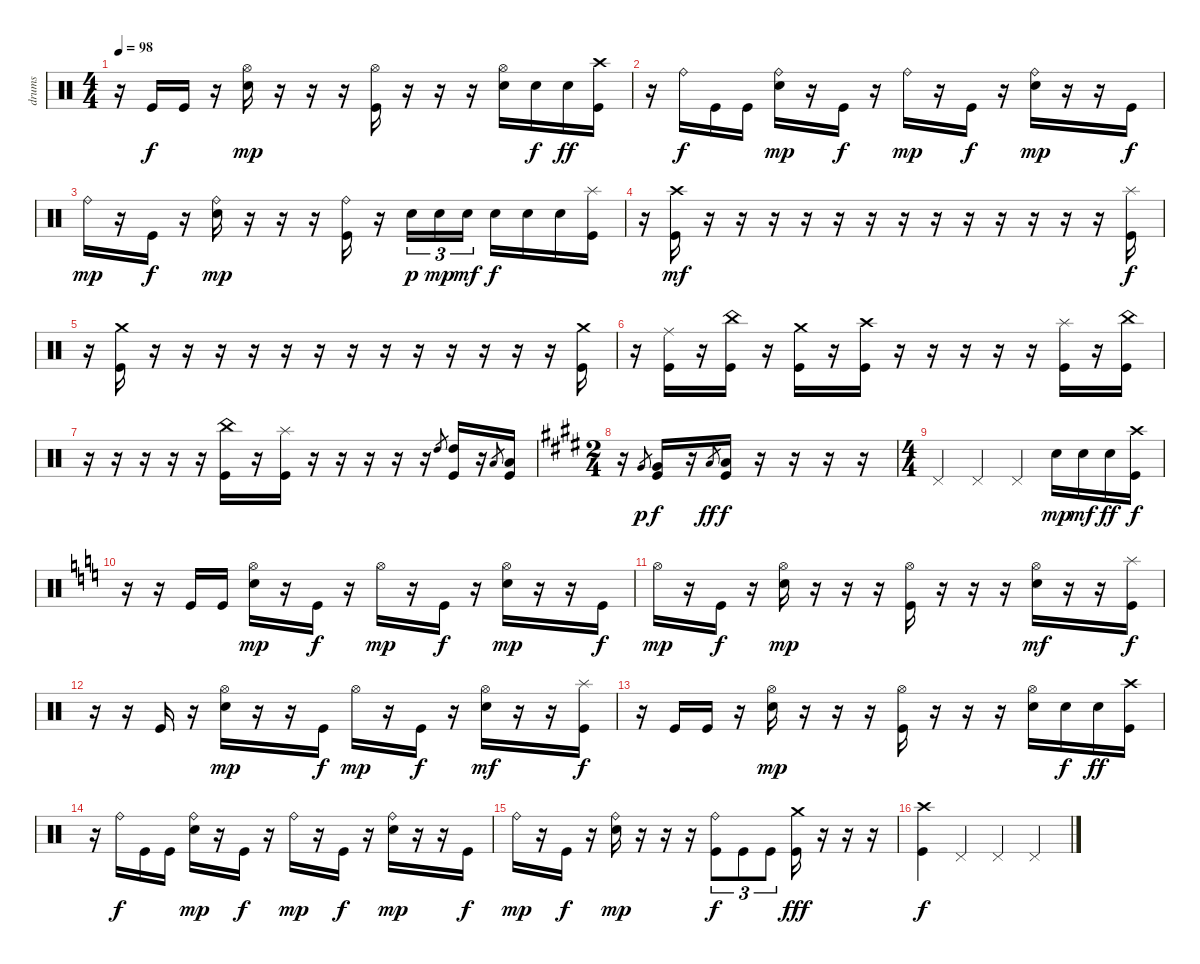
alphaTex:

\track ("drums" "drums") {instrument percussion}
\staff {score}
\articulation defaults
\ts (4 4)
\tempo 98
\clef neutral
\ks c
r.16{dy f} "Kick (hit)".16 "Kick (hit)".16 r.16 ("Hi-Hat (open)" "Electric Snare (hit)").16{dy mp} r.16 r.16 r.16 ("Hi-Hat (open)" "Kick (hit)").16 r.16 r.16 r.16 ("Hi-Hat (open)" "Electric Snare (hit)").16 "Electric Snare (hit)".16{dy f} "Electric Snare (hit)".16{dy ff} ("Crash high (hit)" "Kick (hit)").16 |
r.16 "Ride (bell)".16{dy f} "Kick (hit)".16 "Kick (hit)".16 ("Ride (bell)" "Electric Snare (hit)").16{dy mp} r.16 "Kick (hit)".16{dy f} r.16 "Ride (bell)".16{dy mp} r.16 "Kick (hit)".16{dy f} r.16 ("Ride (bell)" "Electric Snare (hit)").16{dy mp} r.16 r.16 "Kick (hit)".16{dy f} |
"Ride (bell)".16{dy mp} r.16 "Kick (hit)".16{dy f} r.16 ("Ride (bell)" "Electric Snare (hit)").16{dy mp} r.16 r.16 r.16 ("Ride (bell)" "Kick (hit)").16 r.16 "Electric Snare (hit)".16{tu (3 2) dy p} "Electric Snare (hit)".16{tu (3 2) dy mp} "Electric Snare (hit)".16{tu (3 2) dy mf} "Electric Snare (hit)".16{dy f} "Electric Snare (hit)".16 "Electric Snare (hit)".16 ("Splash (hit)" "Kick (hit)").16 |
r.16 ("Crash high (hit)" "Kick (hit)").16{dy mf} r.16 r.16 r.16 r.16 r.16 r.16 r.16 r.16 r.16 r.16 r.16 r.16 r.16 ("Splash (hit)" "Kick (hit)").16{dy f} |
r.16 ("Crash medium (hit)" "Kick (hit)").16 r.16 r.16 r.16 r.16 r.16 r.16 r.16 r.16 r.16 r.16 r.16 r.16 r.16 ("Crash medium (hit)" "Kick (hit)").16 |
r.16 ("Ride (middle)" "Kick (hit)").16 r.16 ("China (hit)" "Kick (hit)").16 r.16 ("Crash medium (hit)" "Kick (hit)").16 r.16 ("Crash high (hit)" "Kick (hit)").16 r.16 r.16 r.16 r.16 r.16 ("Splash (hit)" "Kick (hit)").16 r.16 ("China (hit)" "Kick (hit)").16 |
r.16 r.16 r.16 r.16 r.16 ("China (hit)" "Kick (hit)").16 r.16 ("Splash (hit)" "Kick (hit)").16 r.16 r.16 r.16 r.16 r.16 "High Tom (hit)".8{gr} ("High Tom (hit)" "Kick (hit)").16 r.16 "Low Tom (hit)".8{gr} ("Low Tom (hit)" "Kick (hit)").16 |
\ts (2 4)
\ks e
r.16 "Very Low Tom (hit)".8{gr dy p} ("Very Low Tom (hit)" "Kick (hit)").16{dy f} r.16 "Low Floor Tom (hit)".8{gr dy ff} ("Low Floor Tom (hit)" "Kick (hit)").16{dy f} r.16 r.16 r.16 r.16 |
\ts (4 4)
"Pedal Hi-Hat (hit)".4 "Pedal Hi-Hat (hit)".4 "Pedal Hi-Hat (hit)".4 "Electric Snare (hit)".16{dy mp} "Electric Snare (hit)".16{dy mf} "Electric Snare (hit)".16{dy ff} ("Crash high (hit)" "Kick (hit)").16{dy f} |
\ks c
r.16 r.16 "Kick (hit)".16 "Kick (hit)".16 ("Hi-Hat (open)" "Electric Snare (hit)").16{dy mp} r.16 "Kick (hit)".16{dy f} r.16 "Hi-Hat (open)".16{dy mp} r.16 "Kick (hit)".16{dy f} r.16 ("Hi-Hat (open)" "Electric Snare (hit)").16{dy mp} r.16 r.16 "Kick (hit)".16{dy f} |
"Hi-Hat (open)".16{dy mp} r.16 "Kick (hit)".16{dy f} r.16 ("Hi-Hat (open)" "Electric Snare (hit)").16{dy mp} r.16 r.16 r.16 ("Hi-Hat (open)" "Kick (hit)").16 r.16 r.16 r.16 ("Hi-Hat (open)" "Electric Snare (hit)").16{dy mf} r.16 r.16 ("Splash (hit)" "Kick (hit)").16{dy f} |
r.16 r.16 "Kick (hit)".16 r.16 ("Hi-Hat (open)" "Electric Snare (hit)").16{dy mp} r.16 r.16 "Kick (hit)".16{dy f} "Hi-Hat (open)".16{dy mp} r.16 "Kick (hit)".16{dy f} r.16 ("Hi-Hat (open)" "Electric Snare (hit)").16{dy mf} r.16 r.16 ("Splash (hit)" "Kick (hit)").16{dy f} |
r.16 "Kick (hit)".16 "Kick (hit)".16 r.16 ("Hi-Hat (open)" "Electric Snare (hit)").16{dy mp} r.16 r.16 r.16 ("Hi-Hat (open)" "Kick (hit)").16 r.16 r.16 r.16 ("Hi-Hat (open)" "Electric Snare (hit)").16 "Electric Snare (hit)".16{dy f} "Electric Snare (hit)".16{dy ff} ("Crash high (hit)" "Kick (hit)").16 |
r.16 "Ride (bell)".16{dy f} "Kick (hit)".16 "Kick (hit)".16 ("Ride (bell)" "Electric Snare (hit)").16{dy mp} r.16 "Kick (hit)".16{dy f} r.16 "Ride (bell)".16{dy mp} r.16 "Kick (hit)".16{dy f} r.16 ("Ride (bell)" "Electric Snare (hit)").16{dy mp} r.16 r.16 "Kick (hit)".16{dy f} |
"Ride (bell)".16{dy mp} r.16 "Kick (hit)".16{dy f} r.16 ("Ride (bell)" "Electric Snare (hit)").16{dy mp} r.16 r.16 r.16 ("Ride (bell)" "Kick (hit)").8{tu (3 2) dy f} "Kick (hit)".8{tu (3 2)} "Kick (hit)".8{tu (3 2)} ("Crash medium (hit)" "Kick (hit)").16{dy fff} r.16 r.16 r.16 |
("Crash high (hit)" "Kick (hit)").4{dy f} "Pedal Hi-Hat (hit)".4 "Pedal Hi-Hat (hit)".4 "Pedal Hi-Hat (hit)".4
